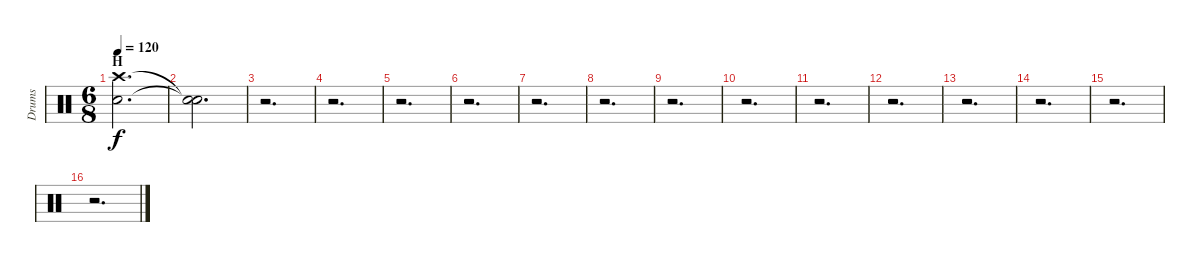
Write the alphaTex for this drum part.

\track ("Drums" "Drums") {instrument percussion}
\staff {score}
\articulation defaults
\ts (6 8)
\section ("" "H")
\tempo 120
\clef neutral
\ks c
("Crash high (hit)" "Electric Snare (hit)").2{d dy f} |
("Snare (hit)"{t} "Snare (hit)"{t}).2{d} |
r.2{d} |
r.2{d} |
r.2{d} |
r.2{d} |
r.2{d} |
r.2{d} |
r.2{d} |
r.2{d} |
r.2{d} |
r.2{d} |
r.2{d} |
r.2{d} |
r.2{d} |
r.2{d}
